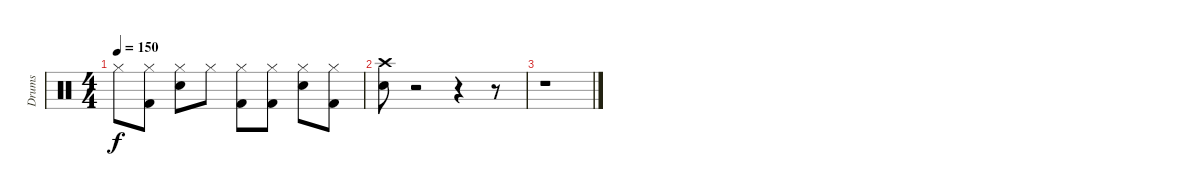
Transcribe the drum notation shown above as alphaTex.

\track ("Drums" "Drums") {instrument percussion}
\staff {score}
\articulation defaults
\ts (4 4)
\tempo 150
\clef neutral
\ks c "Hi-Hat (closed)".8{dy f}
("Kick (hit) 2" "Hi-Hat (closed)").8 ("Snare (hit) 2" "Hi-Hat (closed)").8 "Hi-Hat (closed)".8 ("Kick (hit) 2" "Hi-Hat (closed)").8 ("Kick (hit) 2" "Hi-Hat (closed)").8 ("Snare (hit) 2" "Hi-Hat (closed)").8 ("Kick (hit) 2" "Hi-Hat (closed)").8 |
("Snare (hit) 2" "Crash high (hit)").8 r.2 r.4 r.8 |
r.1
